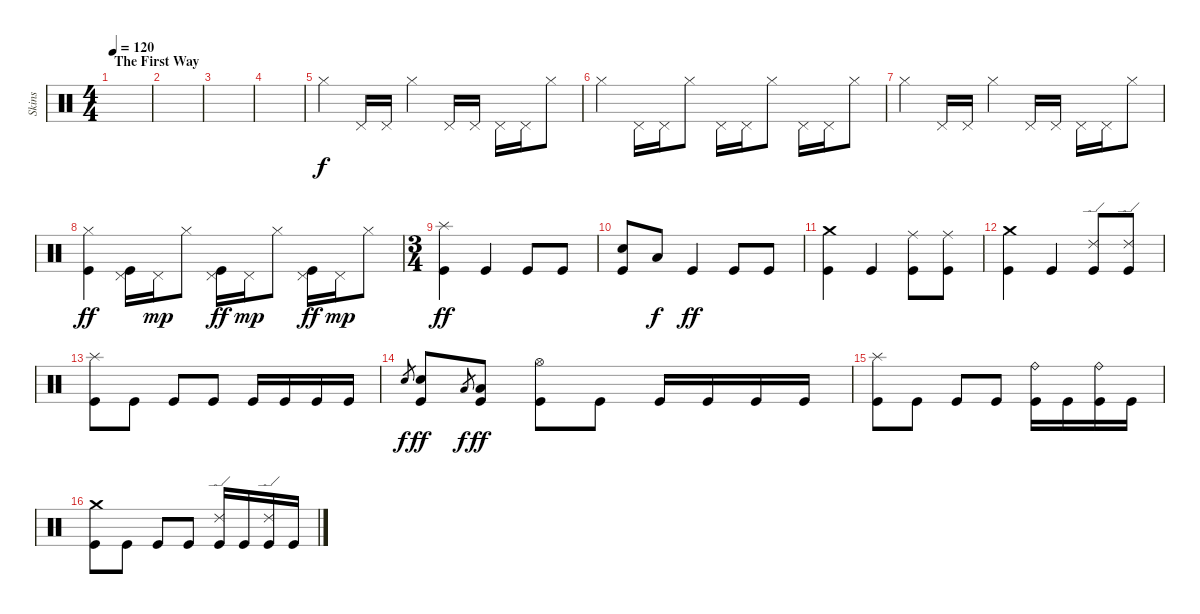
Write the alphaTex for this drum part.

\track ("Skins" "Skins") {instrument percussion}
\staff {score}
\articulation defaults
\ts (4 4)
\section ("" "The First Way")
\tempo 120
\clef neutral
\ks c
|
|
|
|
"Hi-Hat (closed)".4 "Pedal Hi-Hat (hit)".16 "Pedal Hi-Hat (hit)".16 "Hi-Hat (closed)".4 "Pedal Hi-Hat (hit)".16 "Pedal Hi-Hat (hit)".16 "Pedal Hi-Hat (hit)".16 "Pedal Hi-Hat (hit)".16 "Hi-Hat (closed)".8 |
"Hi-Hat (closed)".4 "Pedal Hi-Hat (hit)".16 "Pedal Hi-Hat (hit)".16 "Hi-Hat (closed)".8 "Pedal Hi-Hat (hit)".16 "Pedal Hi-Hat (hit)".16 "Hi-Hat (closed)".8 "Pedal Hi-Hat (hit)".16 "Pedal Hi-Hat (hit)".16 "Hi-Hat (closed)".8 |
"Hi-Hat (closed)".4 "Pedal Hi-Hat (hit)".16 "Pedal Hi-Hat (hit)".16 "Hi-Hat (closed)".4 "Pedal Hi-Hat (hit)".16 "Pedal Hi-Hat (hit)".16 "Pedal Hi-Hat (hit)".16 "Pedal Hi-Hat (hit)".16 "Hi-Hat (closed)".8 |
("Hi-Hat (closed)" "Kick (hit)").4{dy ff} ("Pedal Hi-Hat (hit)" "Kick (hit)").16 "Pedal Hi-Hat (hit)".16{dy mp} "Hi-Hat (closed)".8 ("Pedal Hi-Hat (hit)" "Kick (hit)").16{dy ff} "Pedal Hi-Hat (hit)".16{dy mp} "Hi-Hat (closed)".8 ("Pedal Hi-Hat (hit)" "Kick (hit)").16{dy ff} "Pedal Hi-Hat (hit)".16{dy mp} "Hi-Hat (closed)".8 |
\ts (3 4)
("Splash (hit)" "Kick (hit)").4{dy ff} "Kick (hit)".4 "Kick (hit)".8 "Kick (hit)".8 |
("Snare (hit) 2" "Kick (hit)").8 "Low Tom (hit)".8{dy f} "Kick (hit)".4{dy ff} "Kick (hit)".8 "Kick (hit)".8 |
("Crash medium (hit)" "Kick (hit)").4 "Kick (hit)".4 ("Ride (middle)" "Kick (hit)").8 ("Ride (middle)" "Kick (hit)").8 |
("Crash medium (hit)" "Kick (hit)").4 "Kick (hit)".4 ("Ride (edge) 2" "Kick (hit)").8 ("Ride (edge) 2" "Kick (hit)").8 |
("Splash (hit)" "Kick (hit)").8 "Kick (hit)".8 "Kick (hit)".8 "Kick (hit)".8 "Kick (hit)".16 "Kick (hit)".16 "Kick (hit)".16 "Kick (hit)".16 |
"Snare (hit) 2".8{gr dy f} ("Snare (hit) 2" "Kick (hit)").8{dy ff} "Low Tom (hit)".8{gr dy f} ("Low Tom (hit)" "Kick (hit)").8{dy ff} ("Hi-Hat (open)" "Kick (hit)").8 "Kick (hit)".8 "Kick (hit)".16 "Kick (hit)".16 "Kick (hit)".16 "Kick (hit)".16 |
("Splash (hit)" "Kick (hit)").8 "Kick (hit)".8 "Kick (hit)".8 "Kick (hit)".8 ("Ride (bell)" "Kick (hit)").16 "Kick (hit)".16 ("Ride (bell)" "Kick (hit)").16 "Kick (hit)".16 |
("Crash medium (hit)" "Kick (hit)").8 "Kick (hit)".8 "Kick (hit)".8 "Kick (hit)".8 ("Ride (edge) 2" "Kick (hit)").16 "Kick (hit)".16 ("Ride (edge) 2" "Kick (hit)").16 "Kick (hit)".16
